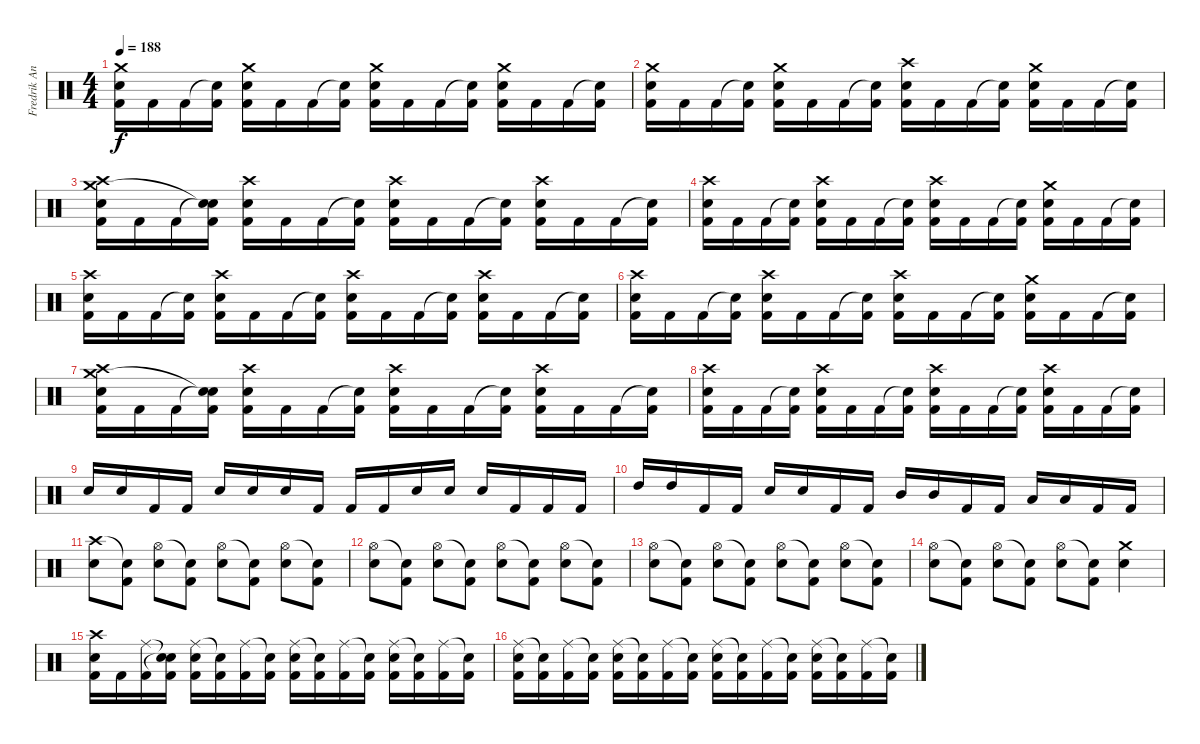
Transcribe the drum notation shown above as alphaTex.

\track ("Fredrik Andersson" "Fredrik An") {instrument percussion}
\staff {score}
\articulation defaults
\ts (4 4)
\tempo 188
\clef neutral
\ks c
("Crash medium (hit)" "Snare (hit) 2" "Kick (hit) 2").16{dy f} "Kick (hit) 2".16 "Kick (hit) 2".16 ("Snare (hit)"{t} "Kick (hit) 2").16 ("Crash medium (hit)" "Snare (hit) 2" "Kick (hit) 2").16 "Kick (hit) 2".16 "Kick (hit) 2".16 ("Snare (hit)"{t} "Kick (hit) 2").16 ("Crash medium (hit)" "Snare (hit) 2" "Kick (hit) 2").16 "Kick (hit) 2".16 "Kick (hit) 2".16 ("Snare (hit)"{t} "Kick (hit) 2").16 ("Crash medium (hit)" "Snare (hit) 2" "Kick (hit) 2").16 "Kick (hit) 2".16 "Kick (hit) 2".16 ("Snare (hit)"{t} "Kick (hit) 2").16 |
("Crash medium (hit)" "Snare (hit) 2" "Kick (hit) 2").16 "Kick (hit) 2".16 "Kick (hit) 2".16 ("Snare (hit)"{t} "Kick (hit) 2").16 ("Crash medium (hit)" "Snare (hit) 2" "Kick (hit) 2").16 "Kick (hit) 2".16 "Kick (hit) 2".16 ("Snare (hit)"{t} "Kick (hit) 2").16 ("Crash high (hit)" "Snare (hit) 2" "Kick (hit) 2").16 "Kick (hit) 2".16 "Kick (hit) 2".16 ("Snare (hit)"{t} "Kick (hit) 2").16 ("Crash medium (hit)" "Snare (hit) 2" "Kick (hit) 2").16 "Kick (hit) 2".16 "Kick (hit) 2".16 ("Snare (hit)"{t} "Kick (hit) 2").16 |
("Crash high (hit)" "Crash medium (hit)" "Snare (hit) 2" "Kick (hit) 2").16 "Kick (hit) 2".16 "Kick (hit) 2".16 ("Snare (hit)"{t} "Snare (hit)"{t} "Kick (hit) 2").16 ("Crash high (hit)" "Snare (hit) 2" "Kick (hit) 2").16 "Kick (hit) 2".16 "Kick (hit) 2".16 ("Snare (hit)"{t} "Kick (hit) 2").16 ("Crash high (hit)" "Snare (hit) 2" "Kick (hit) 2").16 "Kick (hit) 2".16 "Kick (hit) 2".16 ("Snare (hit)"{t} "Kick (hit) 2").16 ("Crash high (hit)" "Snare (hit) 2" "Kick (hit) 2").16 "Kick (hit) 2".16 "Kick (hit) 2".16 ("Snare (hit)"{t} "Kick (hit) 2").16 |
("Crash high (hit)" "Snare (hit) 2" "Kick (hit) 2").16 "Kick (hit) 2".16 "Kick (hit) 2".16 ("Snare (hit)"{t} "Kick (hit) 2").16 ("Crash high (hit)" "Snare (hit) 2" "Kick (hit) 2").16 "Kick (hit) 2".16 "Kick (hit) 2".16 ("Snare (hit)"{t} "Kick (hit) 2").16 ("Crash high (hit)" "Snare (hit) 2" "Kick (hit) 2").16 "Kick (hit) 2".16 "Kick (hit) 2".16 ("Snare (hit)"{t} "Kick (hit) 2").16 ("Crash medium (hit)" "Snare (hit) 2" "Kick (hit) 2").16 "Kick (hit) 2".16 "Kick (hit) 2".16 ("Snare (hit)"{t} "Kick (hit) 2").16 |
("Crash high (hit)" "Snare (hit) 2" "Kick (hit) 2").16 "Kick (hit) 2".16 "Kick (hit) 2".16 ("Snare (hit)"{t} "Kick (hit) 2").16 ("Crash high (hit)" "Snare (hit) 2" "Kick (hit) 2").16 "Kick (hit) 2".16 "Kick (hit) 2".16 ("Snare (hit)"{t} "Kick (hit) 2").16 ("Crash high (hit)" "Snare (hit) 2" "Kick (hit) 2").16 "Kick (hit) 2".16 "Kick (hit) 2".16 ("Snare (hit)"{t} "Kick (hit) 2").16 ("Crash high (hit)" "Snare (hit) 2" "Kick (hit) 2").16 "Kick (hit) 2".16 "Kick (hit) 2".16 ("Snare (hit)"{t} "Kick (hit) 2").16 |
("Crash high (hit)" "Snare (hit) 2" "Kick (hit) 2").16 "Kick (hit) 2".16 "Kick (hit) 2".16 ("Snare (hit)"{t} "Kick (hit) 2").16 ("Crash high (hit)" "Snare (hit) 2" "Kick (hit) 2").16 "Kick (hit) 2".16 "Kick (hit) 2".16 ("Snare (hit)"{t} "Kick (hit) 2").16 ("Crash high (hit)" "Snare (hit) 2" "Kick (hit) 2").16 "Kick (hit) 2".16 "Kick (hit) 2".16 ("Snare (hit)"{t} "Kick (hit) 2").16 ("Crash medium (hit)" "Snare (hit) 2" "Kick (hit) 2").16 "Kick (hit) 2".16 "Kick (hit) 2".16 ("Snare (hit)"{t} "Kick (hit) 2").16 |
("Crash high (hit)" "Crash medium (hit)" "Snare (hit) 2" "Kick (hit) 2").16 "Kick (hit) 2".16 "Kick (hit) 2".16 ("Snare (hit)"{t} "Snare (hit)"{t} "Kick (hit) 2").16 ("Crash high (hit)" "Snare (hit) 2" "Kick (hit) 2").16 "Kick (hit) 2".16 "Kick (hit) 2".16 ("Snare (hit)"{t} "Kick (hit) 2").16 ("Crash high (hit)" "Snare (hit) 2" "Kick (hit) 2").16 "Kick (hit) 2".16 "Kick (hit) 2".16 ("Snare (hit)"{t} "Kick (hit) 2").16 ("Crash high (hit)" "Snare (hit) 2" "Kick (hit) 2").16 "Kick (hit) 2".16 "Kick (hit) 2".16 ("Snare (hit)"{t} "Kick (hit) 2").16 |
("Crash high (hit)" "Snare (hit) 2" "Kick (hit) 2").16 "Kick (hit) 2".16 "Kick (hit) 2".16 ("Snare (hit)"{t} "Kick (hit) 2").16 ("Crash high (hit)" "Snare (hit) 2" "Kick (hit) 2").16 "Kick (hit) 2".16 "Kick (hit) 2".16 ("Snare (hit)"{t} "Kick (hit) 2").16 ("Crash high (hit)" "Snare (hit) 2" "Kick (hit) 2").16 "Kick (hit) 2".16 "Kick (hit) 2".16 ("Snare (hit)"{t} "Kick (hit) 2").16 ("Crash high (hit)" "Snare (hit) 2" "Kick (hit) 2").16 "Kick (hit) 2".16 "Kick (hit) 2".16 ("Snare (hit)"{t} "Kick (hit) 2").16 |
"Snare (hit) 2".16 "Snare (hit) 2".16 "Kick (hit) 2".16 "Kick (hit) 2".16 "Snare (hit) 2".16 "Snare (hit) 2".16 "Snare (hit) 2".16 "Kick (hit) 2".16 "Kick (hit) 2".16 "Kick (hit) 2".16 "Snare (hit) 2".16 "Snare (hit) 2".16 "Snare (hit) 2".16 "Kick (hit) 2".16 "Kick (hit) 2".16 "Kick (hit) 2".16 |
"High Tom (hit)".16 "High Tom (hit)".16 "Kick (hit) 2".16 "Kick (hit) 2".16 "Snare (hit) 2".16 "Snare (hit) 2".16 "Kick (hit) 2".16 "Kick (hit) 2".16 "Mid Tom (hit)".16 "Mid Tom (hit)".16 "Kick (hit) 2".16 "Kick (hit) 2".16 "Low Tom (hit)".16 "Low Tom (hit)".16 "Kick (hit) 2".16 "Kick (hit) 2".16 |
("Crash high (hit)" "Snare (hit) 2").8 ("Snare (hit)"{t} "Kick (hit) 2").8 ("Hi-Hat (open)" "Snare (hit) 2").8 ("Snare (hit)"{t} "Kick (hit) 2").8 ("Hi-Hat (open)" "Snare (hit) 2").8 ("Snare (hit)"{t} "Kick (hit) 2").8 ("Hi-Hat (open)" "Snare (hit) 2").8 ("Snare (hit)"{t} "Kick (hit) 2").8 |
("Hi-Hat (open)" "Snare (hit) 2").8 ("Snare (hit)"{t} "Kick (hit) 2").8 ("Hi-Hat (open)" "Snare (hit) 2").8 ("Snare (hit)"{t} "Kick (hit) 2").8 ("Hi-Hat (open)" "Snare (hit) 2").8 ("Snare (hit)"{t} "Kick (hit) 2").8 ("Hi-Hat (open)" "Snare (hit) 2").8 ("Snare (hit)"{t} "Kick (hit) 2").8 |
("Hi-Hat (open)" "Snare (hit) 2").8 ("Snare (hit)"{t} "Kick (hit) 2").8 ("Hi-Hat (open)" "Snare (hit) 2").8 ("Snare (hit)"{t} "Kick (hit) 2").8 ("Hi-Hat (open)" "Snare (hit) 2").8 ("Snare (hit)"{t} "Kick (hit) 2").8 ("Hi-Hat (open)" "Snare (hit) 2").8 ("Snare (hit)"{t} "Kick (hit) 2").8 |
("Hi-Hat (open)" "Snare (hit) 2").8 ("Snare (hit)"{t} "Kick (hit) 2").8 ("Hi-Hat (open)" "Snare (hit) 2").8 ("Snare (hit)"{t} "Kick (hit) 2").8 ("Hi-Hat (open)" "Snare (hit) 2").8 ("Snare (hit)"{t} "Kick (hit) 2").8 ("Crash medium (hit)" "Snare (hit) 2").4 |
("Crash high (hit)" "Snare (hit) 2" "Kick (hit) 2").16 "Kick (hit) 2".16 ("Ride (middle)" "Kick (hit) 2").16 ("Snare (hit)"{t} "Snare (hit)"{t} "Kick (hit) 2").16 ("Ride (middle)" "Snare (hit) 2" "Kick (hit) 2").16 ("Snare (hit)"{t} "Kick (hit) 2").16 ("Ride (middle)" "Kick (hit) 2").16 ("Snare (hit)"{t} "Kick (hit) 2").16 ("Ride (middle)" "Snare (hit) 2" "Kick (hit) 2").16 ("Snare (hit)"{t} "Kick (hit) 2").16 ("Ride (middle)" "Kick (hit) 2").16 ("Snare (hit)"{t} "Kick (hit) 2").16 ("Ride (middle)" "Snare (hit) 2" "Kick (hit) 2").16 ("Snare (hit)"{t} "Kick (hit) 2").16 ("Ride (middle)" "Kick (hit) 2").16 ("Snare (hit)"{t} "Kick (hit) 2").16 |
("Ride (middle)" "Snare (hit) 2" "Kick (hit) 2").16 ("Snare (hit)"{t} "Kick (hit) 2").16 ("Ride (middle)" "Kick (hit) 2").16 ("Snare (hit)"{t} "Kick (hit) 2").16 ("Ride (middle)" "Snare (hit) 2" "Kick (hit) 2").16 ("Snare (hit)"{t} "Kick (hit) 2").16 ("Ride (middle)" "Kick (hit) 2").16 ("Snare (hit)"{t} "Kick (hit) 2").16 ("Ride (middle)" "Snare (hit) 2" "Kick (hit) 2").16 ("Snare (hit)"{t} "Kick (hit) 2").16 ("Ride (middle)" "Kick (hit) 2").16 ("Snare (hit)"{t} "Kick (hit) 2").16 ("Ride (middle)" "Snare (hit) 2" "Kick (hit) 2").16 ("Snare (hit)"{t} "Kick (hit) 2").16 ("Ride (middle)" "Kick (hit) 2").16 ("Snare (hit)"{t} "Kick (hit) 2").16
